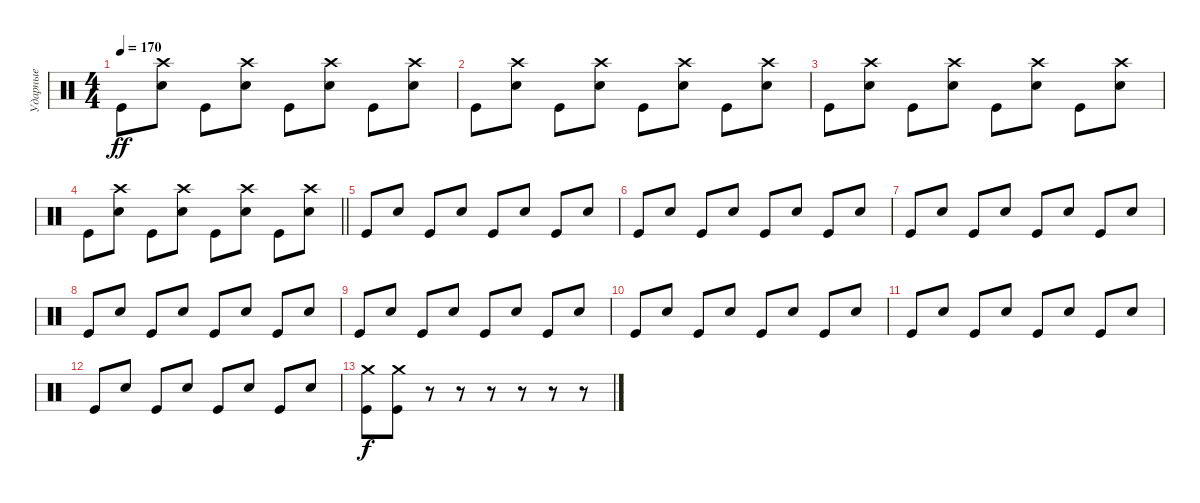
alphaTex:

\track ("Ударные" "Ударные") {instrument percussion}
\staff {score}
\articulation defaults
\ts (4 4)
\tempo 170
\clef neutral
\ks c "Kick (hit)".8{dy ff}
("Crash high (hit)" "Electric Snare (hit)").8 "Kick (hit)".8 ("Crash high (hit)" "Electric Snare (hit)").8 "Kick (hit)".8 ("Crash high (hit)" "Electric Snare (hit)").8 "Kick (hit)".8 ("Crash high (hit)" "Electric Snare (hit)").8 |
"Kick (hit)".8 ("Crash high (hit)" "Electric Snare (hit)").8 "Kick (hit)".8 ("Crash high (hit)" "Electric Snare (hit)").8 "Kick (hit)".8 ("Crash high (hit)" "Electric Snare (hit)").8 "Kick (hit)".8 ("Crash high (hit)" "Electric Snare (hit)").8 |
"Kick (hit)".8 ("Crash high (hit)" "Electric Snare (hit)").8 "Kick (hit)".8 ("Crash high (hit)" "Electric Snare (hit)").8 "Kick (hit)".8 ("Crash high (hit)" "Electric Snare (hit)").8 "Kick (hit)".8 ("Crash high (hit)" "Electric Snare (hit)").8 |
\barLineRight lightlight "Kick (hit)".8
("Crash high (hit)" "Electric Snare (hit)").8 "Kick (hit)".8 ("Crash high (hit)" "Electric Snare (hit)").8 "Kick (hit)".8 ("Crash high (hit)" "Electric Snare (hit)").8 "Kick (hit)".8 ("Crash high (hit)" "Electric Snare (hit)").8 |
\section ("" "")
"Kick (hit)".8 "Electric Snare (hit)".8 "Kick (hit)".8 "Electric Snare (hit)".8 "Kick (hit)".8 "Electric Snare (hit)".8 "Kick (hit)".8 "Electric Snare (hit)".8 |
"Kick (hit)".8 "Electric Snare (hit)".8 "Kick (hit)".8 "Electric Snare (hit)".8 "Kick (hit)".8 "Electric Snare (hit)".8 "Kick (hit)".8 "Electric Snare (hit)".8 |
"Kick (hit)".8 "Electric Snare (hit)".8 "Kick (hit)".8 "Electric Snare (hit)".8 "Kick (hit)".8 "Electric Snare (hit)".8 "Kick (hit)".8 "Electric Snare (hit)".8 |
"Kick (hit)".8 "Electric Snare (hit)".8 "Kick (hit)".8 "Electric Snare (hit)".8 "Kick (hit)".8 "Electric Snare (hit)".8 "Kick (hit)".8 "Electric Snare (hit)".8 |
"Kick (hit)".8 "Electric Snare (hit)".8 "Kick (hit)".8 "Electric Snare (hit)".8 "Kick (hit)".8 "Electric Snare (hit)".8 "Kick (hit)".8 "Electric Snare (hit)".8 |
"Kick (hit)".8 "Electric Snare (hit)".8 "Kick (hit)".8 "Electric Snare (hit)".8 "Kick (hit)".8 "Electric Snare (hit)".8 "Kick (hit)".8 "Electric Snare (hit)".8 |
"Kick (hit)".8 "Electric Snare (hit)".8 "Kick (hit)".8 "Electric Snare (hit)".8 "Kick (hit)".8 "Electric Snare (hit)".8 "Kick (hit)".8 "Electric Snare (hit)".8 |
"Kick (hit)".8 "Electric Snare (hit)".8 "Kick (hit)".8 "Electric Snare (hit)".8 "Kick (hit)".8 "Electric Snare (hit)".8 "Kick (hit)".8 "Electric Snare (hit)".8 |
("Crash medium (hit)" "Kick (hit)").8{dy f} ("Crash medium (hit)" "Kick (hit)").8 r.8 r.8 r.8 r.8 r.8 r.8
